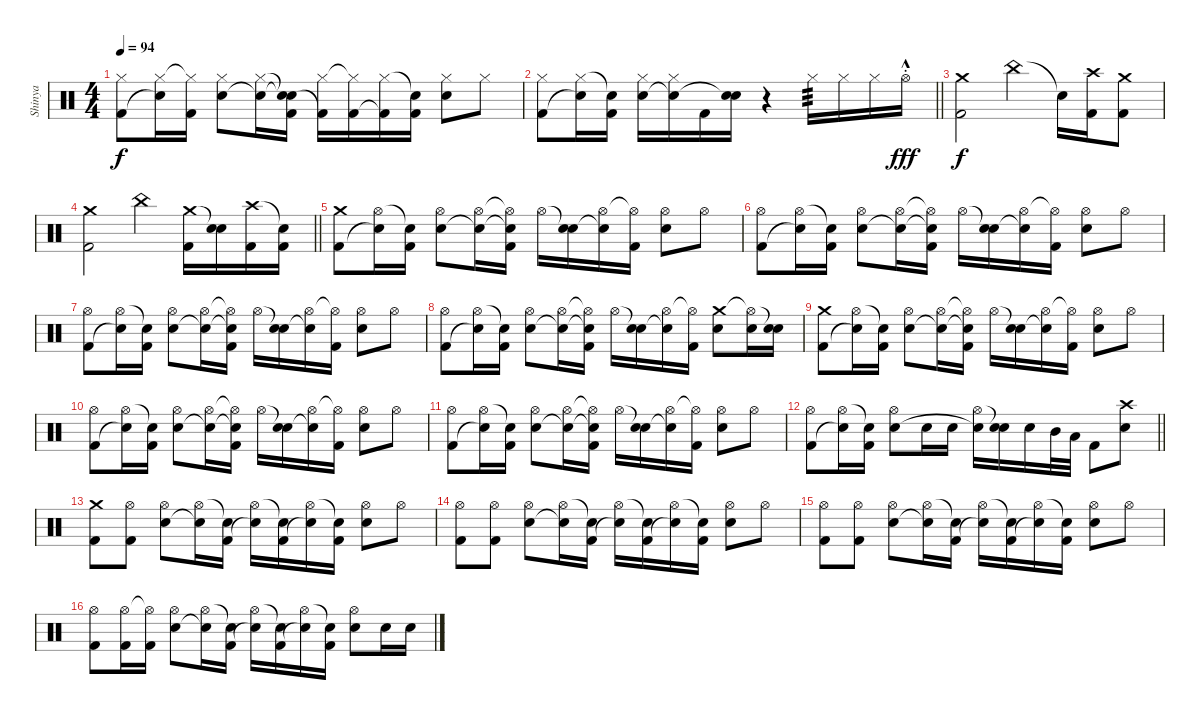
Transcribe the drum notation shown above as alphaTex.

\track ("Shinya" "Shinya") {instrument percussion}
\staff {score}
\articulation defaults
\ts (4 4)
\tempo 94
\clef neutral
\ks c
("Hi-Hat (closed)" "Kick (hit) 2").8{dy f} ("Hi-Hat (closed)" "Snare (hit)"{t}).16 ("Hi-Hat (closed)"{t} "Kick (hit) 2").16 ("Hi-Hat (closed)" "Snare (hit) 2").8 ("Hi-Hat (closed)" "Snare (hit)"{t}).16 ("Snare (hit)"{t} "Snare (hit)"{t} "Kick (hit) 2").16 ("Hi-Hat (closed)" "Kick (hit) 2"{t}).16 ("Hi-Hat (closed)"{t} "Kick (hit) 2").16 ("Hi-Hat (closed)" "Kick (hit) 2"{t}).16 ("Snare (hit) 2"{t} "Kick (hit) 2").16 ("Hi-Hat (closed)" "Snare (hit) 2").8 "Hi-Hat (closed)".8 |
\barLineRight lightlight
("Hi-Hat (closed)" "Kick (hit) 2").8 ("Hi-Hat (closed)" "Snare (hit)"{t}).16 ("Snare (hit)"{t} "Kick (hit) 2").16 ("Hi-Hat (closed)" "Snare (hit) 2").16 ("Hi-Hat (closed)" "Snare (hit)"{t}).16 "Kick (hit) 2".16 ("Snare (hit) 2" "Snare (hit)"{t}).16 r.4 "Hi-Hat (closed)".16{tp 3} "Hi-Hat (closed)".16 "Hi-Hat (closed)".16 "Hi-Hat (open)"{hac st}.16{dy fff} |
("Crash medium (hit)" "Kick (hit) 2").2{dy f volume 16} "China (hit)".4 "Snare (hit)"{t}.16 ("Crash high (hit)" "Kick (hit) 2").16 ("Crash medium (hit)" "Kick (hit) 2").8 |
\barLineRight lightlight
("Crash medium (hit)" "Kick (hit) 2").2 "China (hit)".4 ("Crash medium (hit)" "Kick (hit) 2").16 ("Snare (hit)"{t} "Snare (hit) 2").16 ("Crash high (hit)" "Kick (hit) 2").16 ("Snare (hit)"{t} "Kick (hit) 2").16 |
("Crash medium (hit)" "Kick (hit) 2").8 ("Hi-Hat (open)" "Snare (hit)"{t}).16 ("Snare (hit)"{t} "Kick (hit) 2").16 ("Hi-Hat (open)" "Snare (hit) 2").8 ("Hi-Hat (open)" "Snare (hit)"{t}).16 ("Hi-Hat (open)"{t} "Snare (hit)"{t} "Kick (hit) 2").16 "Hi-Hat (open)".16 ("Snare (hit)"{t} "Snare (hit) 2").16 ("Hi-Hat (open)" "Snare (hit) 2"{t}).16 ("Hi-Hat (open)"{t} "Kick (hit) 2").16 ("Hi-Hat (open)" "Snare (hit) 2").8 "Hi-Hat (open)".8 |
("Hi-Hat (open)" "Kick (hit) 2").8 ("Hi-Hat (open)" "Snare (hit)"{t}).16 ("Snare (hit)"{t} "Kick (hit) 2").16 ("Hi-Hat (open)" "Snare (hit) 2").8 ("Hi-Hat (open)" "Snare (hit)"{t}).16 ("Hi-Hat (open)"{t} "Snare (hit)"{t} "Kick (hit) 2").16 "Hi-Hat (open)".16 ("Snare (hit)"{t} "Snare (hit) 2").16 ("Hi-Hat (open)" "Snare (hit) 2"{t}).16 ("Hi-Hat (open)"{t} "Kick (hit) 2").16 ("Hi-Hat (open)" "Snare (hit) 2").8 "Hi-Hat (open)".8 |
("Hi-Hat (open)" "Kick (hit) 2").8 ("Hi-Hat (open)" "Snare (hit)"{t}).16 ("Snare (hit)"{t} "Kick (hit) 2").16 ("Hi-Hat (open)" "Snare (hit) 2").8 ("Hi-Hat (open)" "Snare (hit)"{t}).16 ("Hi-Hat (open)"{t} "Snare (hit)"{t} "Kick (hit) 2").16 "Hi-Hat (open)".16 ("Snare (hit)"{t} "Snare (hit) 2").16 ("Hi-Hat (open)" "Snare (hit) 2"{t}).16 ("Hi-Hat (open)"{t} "Kick (hit) 2").16 ("Hi-Hat (open)" "Snare (hit) 2").8 "Hi-Hat (open)".8 |
("Hi-Hat (open)" "Kick (hit) 2").8 ("Hi-Hat (open)" "Snare (hit)"{t}).16 ("Snare (hit)"{t} "Kick (hit) 2").16 ("Hi-Hat (open)" "Snare (hit) 2").8 ("Hi-Hat (open)" "Snare (hit)"{t}).16 ("Hi-Hat (open)"{t} "Snare (hit)"{t} "Kick (hit) 2").16 "Hi-Hat (open)".16 ("Snare (hit)"{t} "Snare (hit) 2").16 ("Hi-Hat (open)" "Snare (hit) 2"{t}).16 ("Hi-Hat (open)"{t} "Kick (hit) 2").16 ("Crash medium (hit)" "Snare (hit) 2").8 ("Hi-Hat (open)"{t} "Snare (hit) 2").16 ("Snare (hit)"{t} "Snare (hit) 2").16 |
("Crash medium (hit)" "Kick (hit) 2").8 ("Hi-Hat (open)" "Snare (hit)"{t}).16 ("Snare (hit)"{t} "Kick (hit) 2").16 ("Hi-Hat (open)" "Snare (hit) 2").8 ("Hi-Hat (open)" "Snare (hit)"{t}).16 ("Hi-Hat (open)"{t} "Snare (hit)"{t} "Kick (hit) 2").16 "Hi-Hat (open)".16 ("Snare (hit)"{t} "Snare (hit) 2").16 ("Hi-Hat (open)" "Snare (hit) 2"{t}).16 ("Hi-Hat (open)"{t} "Kick (hit) 2").16 ("Hi-Hat (open)" "Snare (hit) 2").8 "Hi-Hat (open)".8 |
("Hi-Hat (open)" "Kick (hit) 2").8 ("Hi-Hat (open)" "Snare (hit)"{t}).16 ("Snare (hit)"{t} "Kick (hit) 2").16 ("Hi-Hat (open)" "Snare (hit) 2").8 ("Hi-Hat (open)" "Snare (hit)"{t}).16 ("Hi-Hat (open)"{t} "Snare (hit)"{t} "Kick (hit) 2").16 "Hi-Hat (open)".16 ("Snare (hit)"{t} "Snare (hit) 2").16 ("Hi-Hat (open)" "Snare (hit) 2"{t}).16 ("Hi-Hat (open)"{t} "Kick (hit) 2").16 ("Hi-Hat (open)" "Snare (hit) 2").8 "Hi-Hat (open)".8 |
("Hi-Hat (open)" "Kick (hit) 2").8 ("Hi-Hat (open)" "Snare (hit)"{t}).16 ("Snare (hit)"{t} "Kick (hit) 2").16 ("Hi-Hat (open)" "Snare (hit) 2").8 ("Hi-Hat (open)" "Snare (hit)"{t}).16 ("Hi-Hat (open)"{t} "Snare (hit)"{t} "Kick (hit) 2").16 "Hi-Hat (open)".16 ("Snare (hit)"{t} "Snare (hit) 2").16 ("Hi-Hat (open)" "Snare (hit) 2"{t}).16 ("Hi-Hat (open)"{t} "Kick (hit) 2").16 ("Hi-Hat (open)" "Snare (hit) 2").8 "Hi-Hat (open)".8 |
\barLineRight lightlight
("Hi-Hat (open)" "Kick (hit) 2").8 ("Hi-Hat (open)" "Snare (hit)"{t}).16 ("Snare (hit)"{t} "Kick (hit) 2").16 ("Hi-Hat (open)" "Snare (hit) 2").8 "Snare (hit) 2".16 "Snare (hit) 2".16 ("Hi-Hat (open)" "Snare (hit)"{t}).16 ("Snare (hit)"{t} "Snare (hit) 2").16 "Snare (hit) 2".16 "Mid Tom (hit)".32 "Low Tom (hit)".32 "Kick (hit) 2".8 ("Crash high (hit)" "Snare (hit) 2").8 |
("Crash medium (hit)" "Kick (hit) 2").8 ("Hi-Hat (open)" "Kick (hit) 2").8 ("Hi-Hat (open)" "Snare (hit) 2").8 ("Hi-Hat (open)" "Snare (hit)"{t}).16 ("Snare (hit)"{t} "Kick (hit) 2").16 ("Hi-Hat (open)" "Snare (hit)"{t}).16 ("Snare (hit)"{t} "Kick (hit) 2").16 ("Hi-Hat (open)" "Snare (hit)"{t}).16 ("Snare (hit)"{t} "Kick (hit) 2").16 ("Hi-Hat (open)" "Snare (hit) 2").8 "Hi-Hat (open)".8 |
("Hi-Hat (open)" "Kick (hit) 2").8 ("Hi-Hat (open)" "Kick (hit) 2").8 ("Hi-Hat (open)" "Snare (hit) 2").8 ("Hi-Hat (open)" "Snare (hit)"{t}).16 ("Snare (hit)"{t} "Kick (hit) 2").16 ("Hi-Hat (open)" "Snare (hit)"{t}).16 ("Snare (hit)"{t} "Kick (hit) 2").16 ("Hi-Hat (open)" "Snare (hit)"{t}).16 ("Snare (hit)"{t} "Kick (hit) 2").16 ("Hi-Hat (open)" "Snare (hit) 2").8 "Hi-Hat (open)".8 |
("Hi-Hat (open)" "Kick (hit) 2").8 ("Hi-Hat (open)" "Kick (hit) 2").8 ("Hi-Hat (open)" "Snare (hit) 2").8 ("Hi-Hat (open)" "Snare (hit)"{t}).16 ("Snare (hit)"{t} "Kick (hit) 2").16 ("Hi-Hat (open)" "Snare (hit)"{t}).16 ("Snare (hit)"{t} "Kick (hit) 2").16 ("Hi-Hat (open)" "Snare (hit)"{t}).16 ("Snare (hit)"{t} "Kick (hit) 2").16 ("Hi-Hat (open)" "Snare (hit) 2").8 "Hi-Hat (open)".8 |
("Hi-Hat (open)" "Kick (hit) 2").8 ("Hi-Hat (open)" "Kick (hit) 2").16 ("Hi-Hat (open)"{t} "Kick (hit) 2").16 ("Hi-Hat (open)" "Snare (hit) 2").8 ("Hi-Hat (open)" "Snare (hit)"{t}).16 ("Snare (hit)"{t} "Kick (hit) 2").16 ("Hi-Hat (open)" "Snare (hit)"{t}).16 ("Snare (hit)"{t} "Kick (hit) 2").16 ("Hi-Hat (open)" "Snare (hit)"{t}).16 ("Snare (hit)"{t} "Kick (hit) 2").16 ("Hi-Hat (open)" "Snare (hit) 2").8 "Snare (hit) 2".16 "Snare (hit) 2".16
